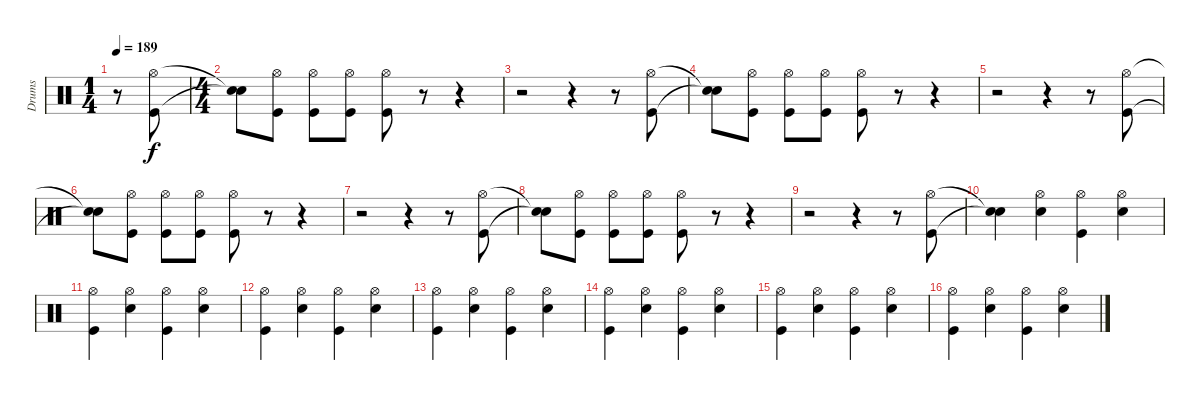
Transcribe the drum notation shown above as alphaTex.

\track ("Drums" "Drums") {instrument percussion}
\staff {score}
\articulation defaults
\ts (1 4)
\tempo 189
\clef neutral
\ks c
r.8{dy f} ("Kick (hit)" "Hi-Hat (open)").8 |
\ts (4 4)
("Snare (hit)"{t} "Snare (hit)"{t}).8 ("Kick (hit)" "Hi-Hat (open)").8 ("Kick (hit)" "Hi-Hat (open)").8 ("Kick (hit)" "Hi-Hat (open)").8 ("Kick (hit)" "Hi-Hat (open)").8 r.8 r.4 |
r.2 r.4 r.8 ("Kick (hit)" "Hi-Hat (open)").8 |
("Snare (hit)"{t} "Snare (hit)"{t}).8 ("Kick (hit)" "Hi-Hat (open)").8 ("Kick (hit)" "Hi-Hat (open)").8 ("Kick (hit)" "Hi-Hat (open)").8 ("Kick (hit)" "Hi-Hat (open)").8 r.8 r.4 |
r.2 r.4 r.8 ("Kick (hit)" "Hi-Hat (open)").8 |
("Snare (hit)"{t} "Snare (hit)"{t}).8 ("Kick (hit)" "Hi-Hat (open)").8 ("Kick (hit)" "Hi-Hat (open)").8 ("Kick (hit)" "Hi-Hat (open)").8 ("Kick (hit)" "Hi-Hat (open)").8 r.8 r.4 |
r.2 r.4 r.8 ("Kick (hit)" "Hi-Hat (open)").8 |
("Snare (hit)"{t} "Snare (hit)"{t}).8 ("Kick (hit)" "Hi-Hat (open)").8 ("Kick (hit)" "Hi-Hat (open)").8 ("Kick (hit)" "Hi-Hat (open)").8 ("Kick (hit)" "Hi-Hat (open)").8 r.8 r.4 |
r.2 r.4 r.8 ("Kick (hit)" "Hi-Hat (open)").8 |
("Snare (hit)"{t} "Snare (hit)"{t}).4 ("Snare (hit) 2" "Hi-Hat (open)").4 ("Kick (hit)" "Hi-Hat (open)").4 ("Snare (hit) 2" "Hi-Hat (open)").4 |
("Kick (hit)" "Hi-Hat (open)").4 ("Snare (hit) 2" "Hi-Hat (open)").4 ("Kick (hit)" "Hi-Hat (open)").4 ("Snare (hit) 2" "Hi-Hat (open)").4 |
("Kick (hit)" "Hi-Hat (open)").4 ("Snare (hit) 2" "Hi-Hat (open)").4 ("Kick (hit)" "Hi-Hat (open)").4 ("Snare (hit) 2" "Hi-Hat (open)").4 |
("Kick (hit)" "Hi-Hat (open)").4 ("Snare (hit) 2" "Hi-Hat (open)").4 ("Kick (hit)" "Hi-Hat (open)").4 ("Snare (hit) 2" "Hi-Hat (open)").4 |
("Kick (hit)" "Hi-Hat (open)").4 ("Snare (hit) 2" "Hi-Hat (open)").4 ("Kick (hit)" "Hi-Hat (open)").4 ("Snare (hit) 2" "Hi-Hat (open)").4 |
("Kick (hit)" "Hi-Hat (open)").4 ("Snare (hit) 2" "Hi-Hat (open)").4 ("Kick (hit)" "Hi-Hat (open)").4 ("Snare (hit) 2" "Hi-Hat (open)").4 |
("Kick (hit)" "Hi-Hat (open)").4 ("Snare (hit) 2" "Hi-Hat (open)").4 ("Kick (hit)" "Hi-Hat (open)").4 ("Snare (hit) 2" "Hi-Hat (open)").4
